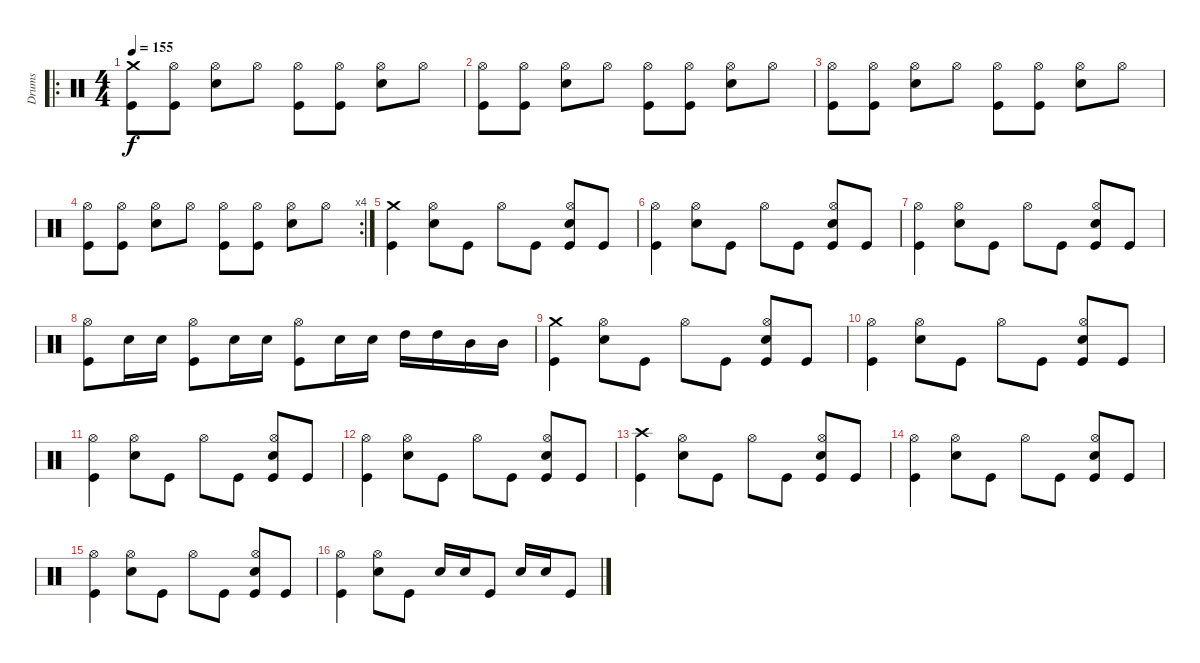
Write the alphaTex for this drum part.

\track ("Drums" "Drums") {instrument percussion}
\staff {score}
\articulation defaults
\ro
\ts (4 4)
\tempo 155
\clef neutral
\ks c
("Crash medium (hit)" "Kick (hit)").8{dy f} ("Hi-Hat (open)" "Kick (hit)").8 ("Hi-Hat (open)" "Snare (hit) 2").8 "Hi-Hat (open)".8 ("Hi-Hat (open)" "Kick (hit)").8 ("Hi-Hat (open)" "Kick (hit)").8 ("Hi-Hat (open)" "Snare (hit) 2").8 "Hi-Hat (open)".8 |
("Hi-Hat (open)" "Kick (hit)").8 ("Hi-Hat (open)" "Kick (hit)").8 ("Hi-Hat (open)" "Snare (hit) 2").8 "Hi-Hat (open)".8 ("Hi-Hat (open)" "Kick (hit)").8 ("Hi-Hat (open)" "Kick (hit)").8 ("Hi-Hat (open)" "Snare (hit) 2").8 "Hi-Hat (open)".8 |
("Hi-Hat (open)" "Kick (hit)").8 ("Hi-Hat (open)" "Kick (hit)").8 ("Hi-Hat (open)" "Snare (hit) 2").8 "Hi-Hat (open)".8 ("Hi-Hat (open)" "Kick (hit)").8 ("Hi-Hat (open)" "Kick (hit)").8 ("Hi-Hat (open)" "Snare (hit) 2").8 "Hi-Hat (open)".8 |
\rc 4
("Hi-Hat (open)" "Kick (hit)").8 ("Hi-Hat (open)" "Kick (hit)").8 ("Hi-Hat (open)" "Snare (hit) 2").8 "Hi-Hat (open)".8 ("Hi-Hat (open)" "Kick (hit)").8 ("Hi-Hat (open)" "Kick (hit)").8 ("Hi-Hat (open)" "Snare (hit) 2").8 "Hi-Hat (open)".8 |
("Crash medium (hit)" "Kick (hit)").4 ("Hi-Hat (open)" "Snare (hit) 2").8 "Kick (hit)".8 "Hi-Hat (open)".8 "Kick (hit)".8 ("Hi-Hat (open)" "Snare (hit) 2" "Kick (hit)").8 "Kick (hit)".8 |
("Hi-Hat (open)" "Kick (hit)").4 ("Hi-Hat (open)" "Snare (hit) 2").8 "Kick (hit)".8 "Hi-Hat (open)".8 "Kick (hit)".8 ("Hi-Hat (open)" "Snare (hit) 2" "Kick (hit)").8 "Kick (hit)".8 |
("Hi-Hat (open)" "Kick (hit)").4 ("Hi-Hat (open)" "Snare (hit) 2").8 "Kick (hit)".8 "Hi-Hat (open)".8 "Kick (hit)".8 ("Hi-Hat (open)" "Snare (hit) 2" "Kick (hit)").8 "Kick (hit)".8 |
("Hi-Hat (open)" "Kick (hit)").8 "Snare (hit) 2".16 "Snare (hit) 2".16 ("Hi-Hat (open)" "Kick (hit)").8 "Snare (hit) 2".16 "Snare (hit) 2".16 ("Hi-Hat (open)" "Kick (hit)").8 "Snare (hit) 2".16 "Snare (hit) 2".16 "High Tom (hit)".16 "High Tom (hit)".16 "Mid Tom (hit)".16 "Mid Tom (hit)".16 |
("Crash medium (hit)" "Kick (hit)").4 ("Hi-Hat (open)" "Snare (hit) 2").8 "Kick (hit)".8 "Hi-Hat (open)".8 "Kick (hit)".8 ("Hi-Hat (open)" "Snare (hit) 2" "Kick (hit)").8 "Kick (hit)".8 |
("Hi-Hat (open)" "Kick (hit)").4 ("Hi-Hat (open)" "Snare (hit) 2").8 "Kick (hit)".8 "Hi-Hat (open)".8 "Kick (hit)".8 ("Hi-Hat (open)" "Snare (hit) 2" "Kick (hit)").8 "Kick (hit)".8 |
("Hi-Hat (open)" "Kick (hit)").4 ("Hi-Hat (open)" "Snare (hit) 2").8 "Kick (hit)".8 "Hi-Hat (open)".8 "Kick (hit)".8 ("Hi-Hat (open)" "Snare (hit) 2" "Kick (hit)").8 "Kick (hit)".8 |
("Hi-Hat (open)" "Kick (hit)").4 ("Hi-Hat (open)" "Snare (hit) 2").8 "Kick (hit)".8 "Hi-Hat (open)".8 "Kick (hit)".8 ("Hi-Hat (open)" "Snare (hit) 2" "Kick (hit)").8 "Kick (hit)".8 |
("Crash high (hit)" "Kick (hit)").4 ("Hi-Hat (open)" "Snare (hit) 2").8 "Kick (hit)".8 "Hi-Hat (open)".8 "Kick (hit)".8 ("Hi-Hat (open)" "Snare (hit) 2" "Kick (hit)").8 "Kick (hit)".8 |
("Hi-Hat (open)" "Kick (hit)").4 ("Hi-Hat (open)" "Snare (hit) 2").8 "Kick (hit)".8 "Hi-Hat (open)".8 "Kick (hit)".8 ("Hi-Hat (open)" "Snare (hit) 2" "Kick (hit)").8 "Kick (hit)".8 |
("Hi-Hat (open)" "Kick (hit)").4 ("Hi-Hat (open)" "Snare (hit) 2").8 "Kick (hit)".8 "Hi-Hat (open)".8 "Kick (hit)".8 ("Hi-Hat (open)" "Snare (hit) 2" "Kick (hit)").8 "Kick (hit)".8 |
("Hi-Hat (open)" "Kick (hit)").4 ("Hi-Hat (open)" "Snare (hit) 2").8 "Kick (hit)".8 "Snare (hit) 2".16 "Snare (hit) 2".16 "Kick (hit)".8 "Snare (hit) 2".16 "Snare (hit) 2".16 "Kick (hit)".8
